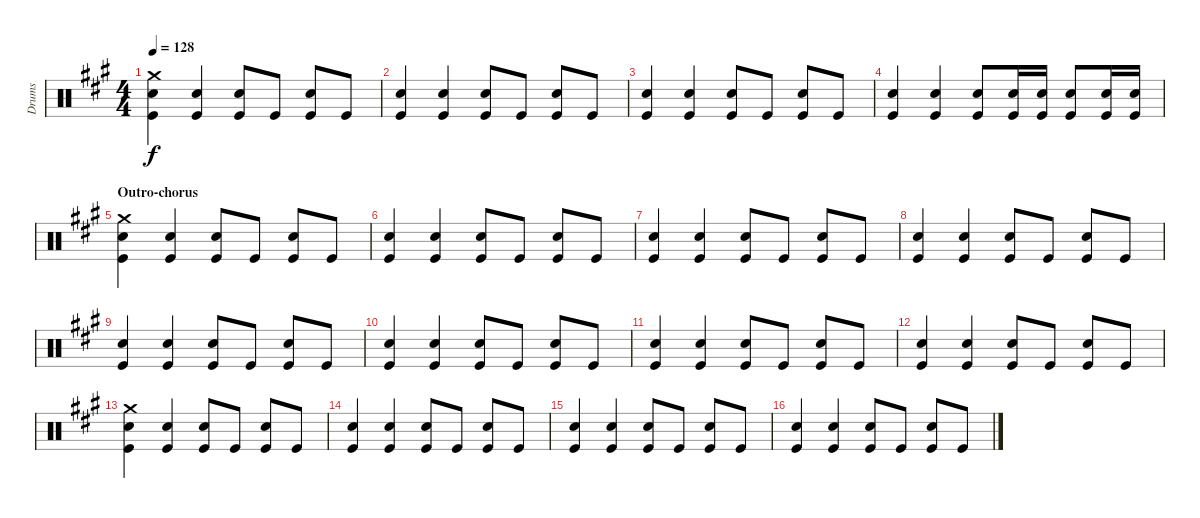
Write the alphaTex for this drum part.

\defaultSystemsLayout 4
\bracketExtendMode groupsimilarinstruments
\otherSystemsTrackNameOrientation horizontal
\track ("Drumkit" "Drums") {instrument percussion}
\staff {score}
\articulation defaults
\ts (4 4)
\tempo 128
\clef neutral
\ks a
("Crash medium (hit)" "Snare (hit) 2" "Kick (hit)").4{dy f} ("Snare (hit) 2" "Kick (hit)").4 ("Snare (hit) 2" "Kick (hit)").8 "Kick (hit)".8 ("Snare (hit) 2" "Kick (hit)").8 "Kick (hit)".8 |
("Snare (hit) 2" "Kick (hit)").4 ("Snare (hit) 2" "Kick (hit)").4 ("Snare (hit) 2" "Kick (hit)").8 "Kick (hit)".8 ("Snare (hit) 2" "Kick (hit)").8 "Kick (hit)".8 |
("Snare (hit) 2" "Kick (hit)").4 ("Snare (hit) 2" "Kick (hit)").4 ("Snare (hit) 2" "Kick (hit)").8 "Kick (hit)".8 ("Snare (hit) 2" "Kick (hit)").8 "Kick (hit)".8 |
("Snare (hit) 2" "Kick (hit)").4 ("Snare (hit) 2" "Kick (hit)").4 ("Snare (hit) 2" "Kick (hit)").8 ("Snare (hit) 2" "Kick (hit)").16 ("Snare (hit) 2" "Kick (hit)").16 ("Snare (hit) 2" "Kick (hit)").8 ("Snare (hit) 2" "Kick (hit)").16 ("Snare (hit) 2" "Kick (hit)").16 |
\section ("" "Outro-chorus")
\scale
0.320388 ("Crash medium (hit)" "Snare (hit) 2" "Kick (hit)").4 ("Snare (hit) 2" "Kick (hit)").4 ("Snare (hit) 2" "Kick (hit)").8 "Kick (hit)".8 ("Snare (hit) 2" "Kick (hit)").8 "Kick (hit)".8 |
\scale
0.226537 ("Snare (hit) 2" "Kick (hit)").4 ("Snare (hit) 2" "Kick (hit)").4 ("Snare (hit) 2" "Kick (hit)").8 "Kick (hit)".8 ("Snare (hit) 2" "Kick (hit)").8 "Kick (hit)".8 |
\scale
0.226537 ("Snare (hit) 2" "Kick (hit)").4 ("Snare (hit) 2" "Kick (hit)").4 ("Snare (hit) 2" "Kick (hit)").8 "Kick (hit)".8 ("Snare (hit) 2" "Kick (hit)").8 "Kick (hit)".8 |
\scale
0.226537 ("Snare (hit) 2" "Kick (hit)").4 ("Snare (hit) 2" "Kick (hit)").4 ("Snare (hit) 2" "Kick (hit)").8 "Kick (hit)".8 ("Snare (hit) 2" "Kick (hit)").8 "Kick (hit)".8 |
("Snare (hit) 2" "Kick (hit)").4 ("Snare (hit) 2" "Kick (hit)").4 ("Snare (hit) 2" "Kick (hit)").8 "Kick (hit)".8 ("Snare (hit) 2" "Kick (hit)").8 "Kick (hit)".8 |
("Snare (hit) 2" "Kick (hit)").4 ("Snare (hit) 2" "Kick (hit)").4 ("Snare (hit) 2" "Kick (hit)").8 "Kick (hit)".8 ("Snare (hit) 2" "Kick (hit)").8 "Kick (hit)".8 |
("Snare (hit) 2" "Kick (hit)").4 ("Snare (hit) 2" "Kick (hit)").4 ("Snare (hit) 2" "Kick (hit)").8 "Kick (hit)".8 ("Snare (hit) 2" "Kick (hit)").8 "Kick (hit)".8 |
("Snare (hit) 2" "Kick (hit)").4 ("Snare (hit) 2" "Kick (hit)").4 ("Snare (hit) 2" "Kick (hit)").8 "Kick (hit)".8 ("Snare (hit) 2" "Kick (hit)").8 "Kick (hit)".8 |
("Crash medium (hit)" "Snare (hit) 2" "Kick (hit)").4 ("Snare (hit) 2" "Kick (hit)").4 ("Snare (hit) 2" "Kick (hit)").8 "Kick (hit)".8 ("Snare (hit) 2" "Kick (hit)").8 "Kick (hit)".8 |
("Snare (hit) 2" "Kick (hit)").4 ("Snare (hit) 2" "Kick (hit)").4 ("Snare (hit) 2" "Kick (hit)").8 "Kick (hit)".8 ("Snare (hit) 2" "Kick (hit)").8 "Kick (hit)".8 |
("Snare (hit) 2" "Kick (hit)").4 ("Snare (hit) 2" "Kick (hit)").4 ("Snare (hit) 2" "Kick (hit)").8 "Kick (hit)".8 ("Snare (hit) 2" "Kick (hit)").8 "Kick (hit)".8 |
("Snare (hit) 2" "Kick (hit)").4 ("Snare (hit) 2" "Kick (hit)").4 ("Snare (hit) 2" "Kick (hit)").8 "Kick (hit)".8 ("Snare (hit) 2" "Kick (hit)").8 "Kick (hit)".8
